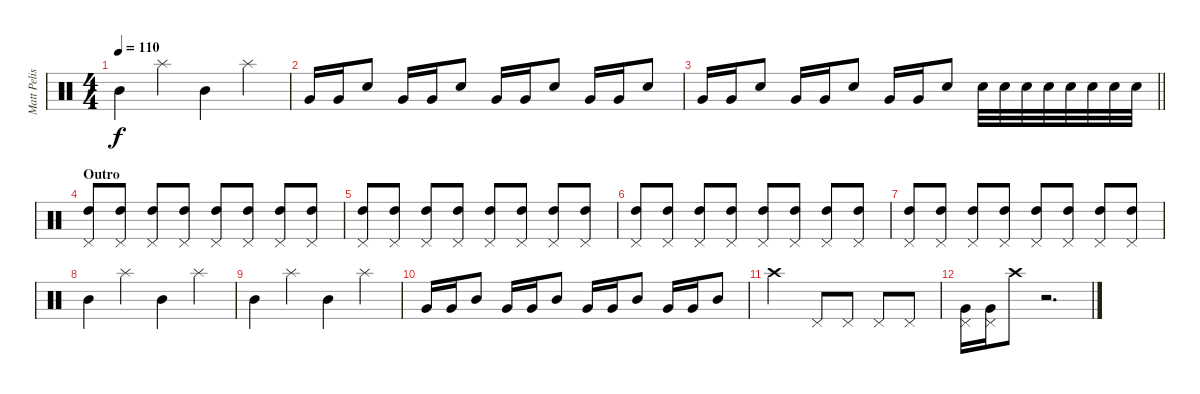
\track ("Matt Pelissier (Bob Bryar)" "Matt Pelis") {instrument percussion}
\staff {score}
\articulation defaults
\ts (4 4)
\tempo 110
\clef neutral
\ks c "Mid Tom (hit)".4{dy f} "Splash (hit)".4 "Mid Tom (hit)".4 "Splash (hit)".4
|
"Very Low Tom (hit)".16 "Very Low Tom (hit)".16 "Electric Snare (hit)".8 "Very Low Tom (hit)".16 "Very Low Tom (hit)".16 "Electric Snare (hit)".8 "Very Low Tom (hit)".16 "Very Low Tom (hit)".16 "Electric Snare (hit)".8 "Very Low Tom (hit)".16 "Very Low Tom (hit)".16 "Electric Snare (hit)".8 |
\barLineRight lightlight "Very Low Tom (hit)".16 "Very Low Tom (hit)".16 "Electric Snare (hit)".8 "Very Low Tom (hit)".16 "Very Low Tom (hit)".16 "Electric Snare (hit)".8 "Very Low Tom (hit)".16 "Very Low Tom (hit)".16 "Electric Snare (hit)".8 "Electric Snare (hit)".32 "Electric Snare (hit)".32 "Electric Snare (hit)".32 "Electric Snare (hit)".32 "Electric Snare (hit)".32 "Electric Snare (hit)".32 "Electric Snare (hit)".32 "Electric Snare (hit)".32
|
\section ("" "Outro")
("Pedal Hi-Hat (hit)" "High Tom (hit)").8 ("Pedal Hi-Hat (hit)" "High Tom (hit)").8 ("Pedal Hi-Hat (hit)" "High Tom (hit)").8 ("Pedal Hi-Hat (hit)" "High Tom (hit)").8 ("Pedal Hi-Hat (hit)" "High Tom (hit)").8 ("Pedal Hi-Hat (hit)" "High Tom (hit)").8 ("Pedal Hi-Hat (hit)" "High Tom (hit)").8 ("Pedal Hi-Hat (hit)" "High Tom (hit)").8 |
("Pedal Hi-Hat (hit)" "High Tom (hit)").8 ("Pedal Hi-Hat (hit)" "High Tom (hit)").8 ("Pedal Hi-Hat (hit)" "High Tom (hit)").8 ("Pedal Hi-Hat (hit)" "High Tom (hit)").8 ("Pedal Hi-Hat (hit)" "High Tom (hit)").8 ("Pedal Hi-Hat (hit)" "High Tom (hit)").8 ("Pedal Hi-Hat (hit)" "High Tom (hit)").8 ("Pedal Hi-Hat (hit)" "High Tom (hit)").8 |
("Pedal Hi-Hat (hit)" "High Tom (hit)").8 ("Pedal Hi-Hat (hit)" "High Tom (hit)").8 ("Pedal Hi-Hat (hit)" "High Tom (hit)").8 ("Pedal Hi-Hat (hit)" "High Tom (hit)").8 ("Pedal Hi-Hat (hit)" "High Tom (hit)").8 ("Pedal Hi-Hat (hit)" "High Tom (hit)").8 ("Pedal Hi-Hat (hit)" "High Tom (hit)").8 ("Pedal Hi-Hat (hit)" "High Tom (hit)").8 |
("Pedal Hi-Hat (hit)" "High Tom (hit)").8 ("Pedal Hi-Hat (hit)" "High Tom (hit)").8 ("Pedal Hi-Hat (hit)" "High Tom (hit)").8 ("Pedal Hi-Hat (hit)" "High Tom (hit)").8 ("Pedal Hi-Hat (hit)" "High Tom (hit)").8 ("Pedal Hi-Hat (hit)" "High Tom (hit)").8 ("Pedal Hi-Hat (hit)" "High Tom (hit)").8 ("Pedal Hi-Hat (hit)" "High Tom (hit)").8 |
"Mid Tom (hit)".4 "Splash (hit)".4 "Mid Tom (hit)".4 "Splash (hit)".4 |
"Mid Tom (hit)".4 "Splash (hit)".4 "Mid Tom (hit)".4 "Splash (hit)".4 |
"Very Low Tom (hit)".16 "Very Low Tom (hit)".16 "Mid Tom (hit)".8 "Very Low Tom (hit)".16 "Very Low Tom (hit)".16 "Mid Tom (hit)".8 "Very Low Tom (hit)".16 "Very Low Tom (hit)".16 "Mid Tom (hit)".8 "Very Low Tom (hit)".16 "Very Low Tom (hit)".16 "Mid Tom (hit)".8 |
"Crash high (hit)".2 "Pedal Hi-Hat (hit)".8 "Pedal Hi-Hat (hit)".8 "Pedal Hi-Hat (hit)".8 "Pedal Hi-Hat (hit)".8 |
("Very Low Tom (hit)" "Pedal Hi-Hat (hit)").16 ("Very Low Tom (hit)" "Pedal Hi-Hat (hit)").16 "Crash high (hit)".8 r.2{d}
